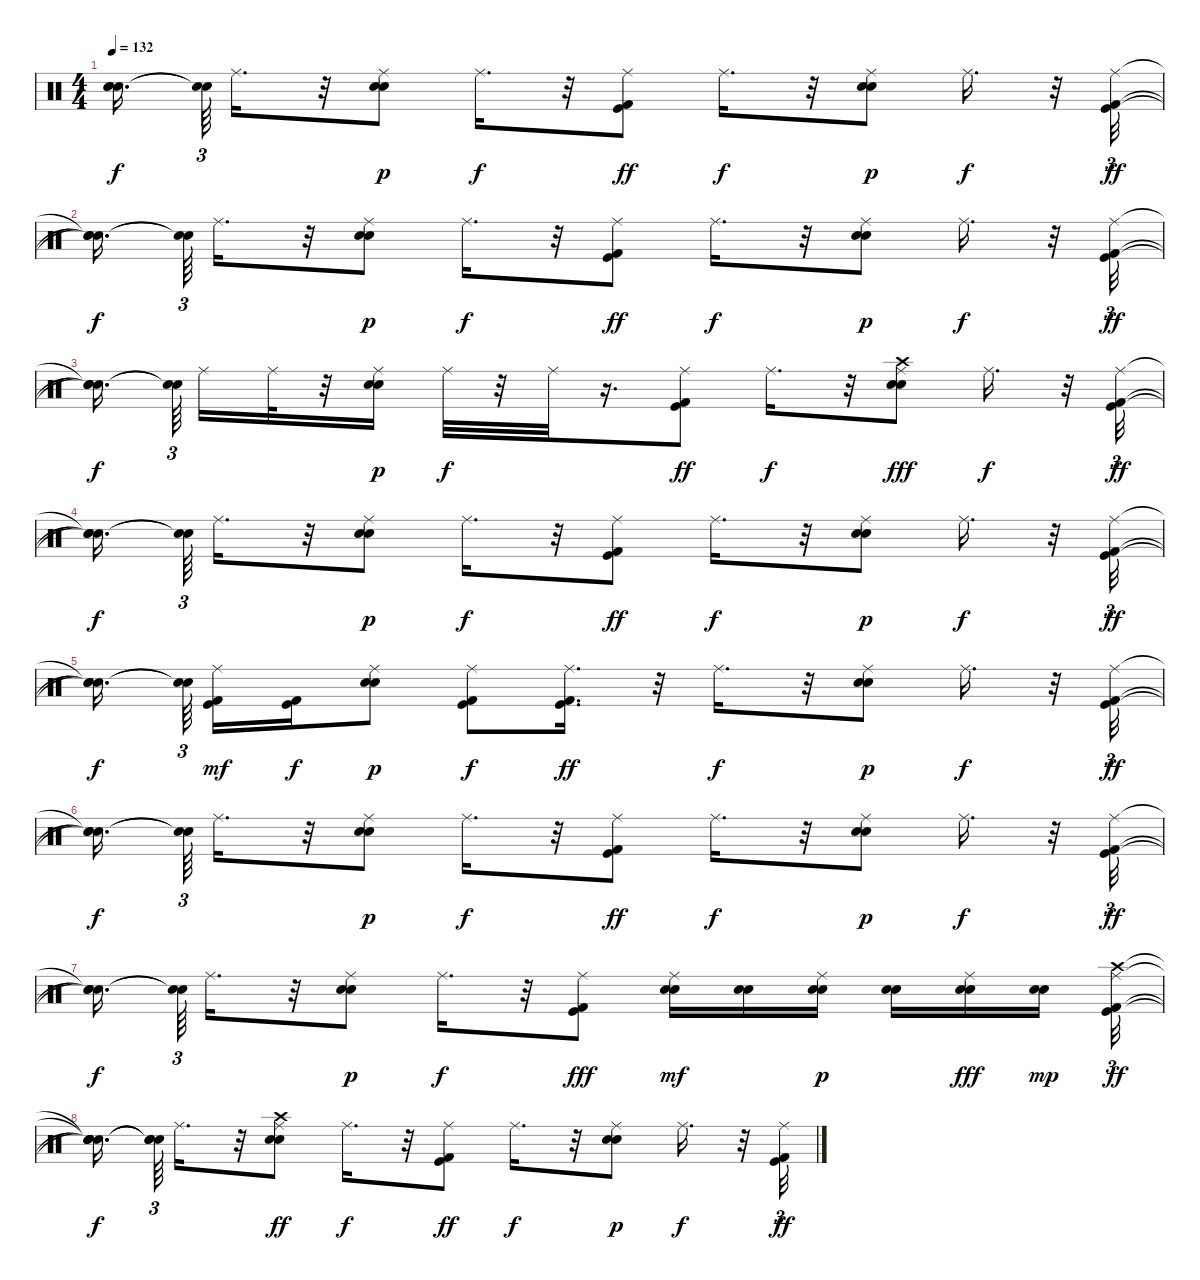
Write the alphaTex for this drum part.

\track "" {instrument percussion}
\staff {score}
\articulation defaults
\ts (4 4)
\tempo 132
\clef neutral
\ks c
("Snare (hit)"{t} "Snare (hit)"{t} "Snare (hit)"{t}).16{d dy f beam splitsecondary} ("Snare (hit)"{t} "Snare (hit)"{t}).64{tu (3 2)} "Ride (middle)".16{d} r.32 ("Electric Snare (hit)" "Snare (hit) 2" "Ride (middle)").8{dy p} "Ride (middle)".16{d dy f} r.32 ("Kick (hit) 2" "Kick (hit)" "Ride (middle)").8{dy ff} "Ride (middle)".16{d dy f} r.32 ("Electric Snare (hit)" "Snare (hit) 2" "Ride (middle)").8{dy p} "Ride (middle)".16{d dy f} r.32 ("Kick (hit) 2" "Kick (hit)" "Ride (middle)").32{tu (3 2) dy ff} |
("Snare (hit)"{t} "Snare (hit)"{t} "Snare (hit)"{t}).16{d dy f beam splitsecondary} ("Snare (hit)"{t} "Snare (hit)"{t}).64{tu (3 2)} "Ride (middle)".16{d} r.32 ("Electric Snare (hit)" "Snare (hit) 2" "Ride (middle)").8{dy p} "Ride (middle)".16{d dy f} r.32 ("Kick (hit) 2" "Kick (hit)" "Ride (middle)").8{dy ff} "Ride (middle)".16{d dy f} r.32 ("Electric Snare (hit)" "Snare (hit) 2" "Ride (middle)").8{dy p} "Ride (middle)".16{d dy f} r.32 ("Kick (hit) 2" "Kick (hit)" "Ride (middle)").32{tu (3 2) dy ff} |
("Snare (hit)"{t} "Snare (hit)"{t} "Snare (hit)"{t}).16{d dy f beam splitsecondary} ("Snare (hit)"{t} "Snare (hit)"{t}).64{tu (3 2) beam splitsecondary} "Ride (middle)".16 "Ride (middle)".32 r.32 ("Electric Snare (hit)" "Snare (hit) 2" "Ride (middle)").16{dy p} "Ride (middle)".32{dy f} r.32 "Ride (middle)".32 r.16{d} ("Kick (hit) 2" "Kick (hit)" "Ride (middle)").8{dy ff} "Ride (middle)".16{d dy f} r.32 ("Electric Snare (hit)" "Snare (hit) 2" "Crash high (hit)" "Ride (middle)").8{dy fff} "Ride (middle)".16{d dy f} r.32 ("Kick (hit) 2" "Kick (hit)" "Ride (middle)").32{tu (3 2) dy ff} |
("Snare (hit)"{t} "Snare (hit)"{t} "Snare (hit)"{t}).16{d dy f beam splitsecondary} ("Snare (hit)"{t} "Snare (hit)"{t}).64{tu (3 2)} "Ride (middle)".16{d} r.32 ("Electric Snare (hit)" "Snare (hit) 2" "Ride (middle)").8{dy p} "Ride (middle)".16{d dy f} r.32 ("Kick (hit) 2" "Kick (hit)" "Ride (middle)").8{dy ff} "Ride (middle)".16{d dy f} r.32 ("Electric Snare (hit)" "Snare (hit) 2" "Ride (middle)").8{dy p} "Ride (middle)".16{d dy f} r.32 ("Kick (hit) 2" "Kick (hit)" "Ride (middle)").32{tu (3 2) dy ff} |
("Snare (hit)"{t} "Snare (hit)"{t} "Snare (hit)"{t}).16{d dy f beam splitsecondary} ("Snare (hit)"{t} "Snare (hit)"{t}).64{tu (3 2) beam splitsecondary} ("Kick (hit) 2" "Kick (hit)" "Ride (middle)").16{dy mf} ("Kick (hit)" "Kick (hit) 2").16{dy f} ("Electric Snare (hit)" "Snare (hit) 2" "Ride (middle)").8{dy p} ("Kick (hit)" "Kick (hit) 2" "Ride (middle)").8{dy f} ("Kick (hit) 2" "Kick (hit)" "Ride (middle)").16{d dy ff} r.32 "Ride (middle)".16{d dy f} r.32 ("Electric Snare (hit)" "Snare (hit) 2" "Ride (middle)").8{dy p} "Ride (middle)".16{d dy f} r.32 ("Kick (hit) 2" "Kick (hit)" "Ride (middle)").32{tu (3 2) dy ff} |
("Snare (hit)"{t} "Snare (hit)"{t} "Snare (hit)"{t}).16{d dy f beam splitsecondary} ("Snare (hit)"{t} "Snare (hit)"{t}).64{tu (3 2)} "Ride (middle)".16{d} r.32 ("Electric Snare (hit)" "Snare (hit) 2" "Ride (middle)").8{dy p} "Ride (middle)".16{d dy f} r.32 ("Kick (hit) 2" "Kick (hit)" "Ride (middle)").8{dy ff} "Ride (middle)".16{d dy f} r.32 ("Electric Snare (hit)" "Snare (hit) 2" "Ride (middle)").8{dy p} "Ride (middle)".16{d dy f} r.32 ("Kick (hit) 2" "Kick (hit)" "Ride (middle)").32{tu (3 2) dy ff} |
("Snare (hit)"{t} "Snare (hit)"{t} "Snare (hit)"{t}).16{d dy f beam splitsecondary} ("Snare (hit)"{t} "Snare (hit)"{t}).64{tu (3 2)} "Ride (middle)".16{d} r.32 ("Electric Snare (hit)" "Snare (hit) 2" "Ride (middle)").8{dy p} "Ride (middle)".16{d dy f} r.32 ("Kick (hit) 2" "Kick (hit)" "Ride (middle)").8{dy fff} ("Snare (hit) 2" "Electric Snare (hit)" "Ride (middle)").16{dy mf} ("Snare (hit) 2" "Electric Snare (hit)").16 ("Electric Snare (hit)" "Snare (hit) 2" "Ride (middle)").16{dy p} ("Electric Snare (hit)" "Snare (hit) 2").16 ("Snare (hit) 2" "Electric Snare (hit)" "Ride (middle)").16{dy fff} ("Electric Snare (hit)" "Snare (hit) 2").16{dy mp beam splitsecondary} ("Kick (hit) 2" "Kick (hit)" "Crash high (hit)" "Ride (middle)").32{tu (3 2) dy ff} |
("Snare (hit)"{t} "Snare (hit)"{t} "Snare (hit)"{t} "Snare (hit)"{t}).16{d dy f beam splitsecondary} ("Snare (hit)"{t} "Snare (hit)"{t} "Snare (hit)"{t}).64{tu (3 2)} "Ride (middle)".16{d} r.32 ("Electric Snare (hit)" "Snare (hit) 2" "Crash high (hit)" "Ride (middle)").8{dy ff} "Ride (middle)".16{d dy f} r.32 ("Kick (hit) 2" "Kick (hit)" "Ride (middle)").8{dy ff} "Ride (middle)".16{d dy f} r.32 ("Electric Snare (hit)" "Snare (hit) 2" "Ride (middle)").8{dy p} "Ride (middle)".16{d dy f} r.32 ("Kick (hit) 2" "Kick (hit)" "Ride (middle)").32{tu (3 2) dy ff}
